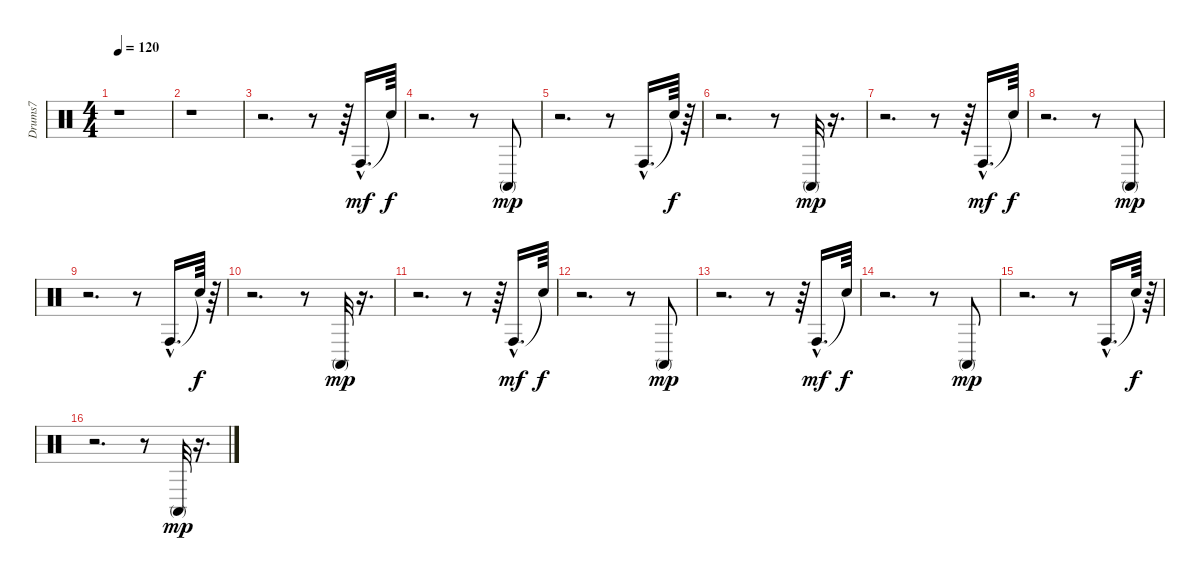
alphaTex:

\track ("Drums7" "Drums7") {instrument percussion}
\staff {score}
\articulation defaults
\ts (4 4)
\tempo 120
\clef neutral
\ks c
r.1{dy mf} |
r.1 |
r.2{d} r.8 r.64 "Conga high (hit)"{hac}.16{d} "Snare (hit)"{t}.64{dy f} |
r.2{d} r.8 "Conga high (mute)".8{dy mp} |
r.2{d} r.8 "Conga high (hit)"{hac}.16{d} "Snare (hit)"{t}.64{dy f} r.64 |
r.2{d} r.8 "Conga high (mute)".32{dy mp} r.16{d} |
r.2{d} r.8 r.64 "Conga high (hit)"{hac}.16{d dy mf} "Snare (hit)"{t}.64{dy f} |
r.2{d} r.8 "Conga high (mute)".8{dy mp} |
r.2{d} r.8 "Conga high (hit)"{hac}.16{d} "Snare (hit)"{t}.64{dy f} r.64 |
r.2{d} r.8 "Conga high (mute)".32{dy mp} r.16{d} |
r.2{d} r.8 r.64 "Conga high (hit)"{hac}.16{d dy mf} "Snare (hit)"{t}.64{dy f} |
r.2{d} r.8 "Conga high (mute)".8{dy mp} |
r.2{d} r.8 r.64 "Conga high (hit)"{hac}.16{d dy mf} "Snare (hit)"{t}.64{dy f} |
r.2{d} r.8 "Conga high (mute)".8{dy mp} |
r.2{d} r.8 "Conga high (hit)"{hac}.16{d} "Snare (hit)"{t}.64{dy f} r.64 |
r.2{d} r.8 "Conga high (mute)".32{dy mp} r.16{d}
